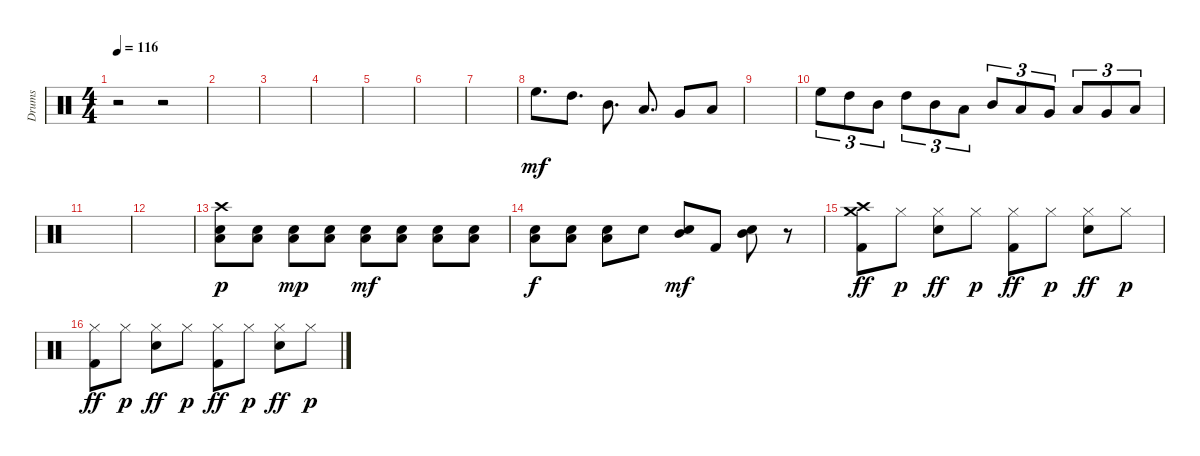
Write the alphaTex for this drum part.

\track ("Drums" "Drums") {instrument percussion}
\staff {score}
\articulation defaults
\ts (4 4)
\tempo 116
\clef neutral
\ks c
r.2{dy mp} r.2 |
|
|
|
|
|
|
"High Floor Tom (hit)".8{d dy mf} "High Tom (hit)".8{d} "Mid Tom (hit)".8{d} "Low Tom (hit)".8{d} "Very Low Tom (hit)".8 "Low Floor Tom (hit)".8 |
|
"High Floor Tom (hit)".8{tu (3 2)} "High Tom (hit)".8{tu (3 2)} "Mid Tom (hit)".8{tu (3 2)} "High Tom (hit)".8{tu (3 2)} "Mid Tom (hit)".8{tu (3 2)} "Low Tom (hit)".8{tu (3 2)} "Mid Tom (hit)".8{tu (3 2)} "Low Tom (hit)".8{tu (3 2)} "Very Low Tom (hit)".8{tu (3 2)} "Low Tom (hit)".8{tu (3 2)} "Very Low Tom (hit)".8{tu (3 2)} "Low Floor Tom (hit)".8{tu (3 2)} |
|
|
("Crash high (hit)" "Snare (hit) 2" "Low Floor Tom (hit)").8{dy p} ("Snare (hit) 2" "Low Floor Tom (hit)").8 ("Snare (hit) 2" "Low Floor Tom (hit)").8{dy mp} ("Snare (hit) 2" "Low Floor Tom (hit)").8 ("Snare (hit) 2" "Low Floor Tom (hit)").8{dy mf} ("Snare (hit) 2" "Low Floor Tom (hit)").8 ("Snare (hit) 2" "Low Floor Tom (hit)").8 ("Snare (hit) 2" "Low Floor Tom (hit)").8 |
("Snare (hit) 2" "Low Floor Tom (hit)").8{dy f} ("Snare (hit) 2" "Low Floor Tom (hit)").8 ("Snare (hit) 2" "Low Floor Tom (hit)").8 "Snare (hit) 2".8 ("Snare (hit) 2" "Mid Tom (hit)").8{dy mf} "Kick (hit) 2".8 ("Snare (hit) 2" "Mid Tom (hit)").8 r.8 |
("Crash high (hit)" "Crash medium (hit)" "Kick (hit) 2").8{dy ff} "Hi-Hat (closed)".8{dy p} ("Hi-Hat (closed)" "Snare (hit) 2").8{dy ff} "Hi-Hat (closed)".8{dy p} ("Hi-Hat (closed)" "Kick (hit) 2").8{dy ff} "Hi-Hat (closed)".8{dy p} ("Hi-Hat (closed)" "Snare (hit) 2").8{dy ff} "Hi-Hat (closed)".8{dy p} |
("Hi-Hat (closed)" "Kick (hit) 2").8{dy ff} "Hi-Hat (closed)".8{dy p} ("Hi-Hat (closed)" "Snare (hit) 2").8{dy ff} "Hi-Hat (closed)".8{dy p} ("Hi-Hat (closed)" "Kick (hit) 2").8{dy ff} "Hi-Hat (closed)".8{dy p} ("Hi-Hat (closed)" "Snare (hit) 2").8{dy ff} "Hi-Hat (closed)".8{dy p}
